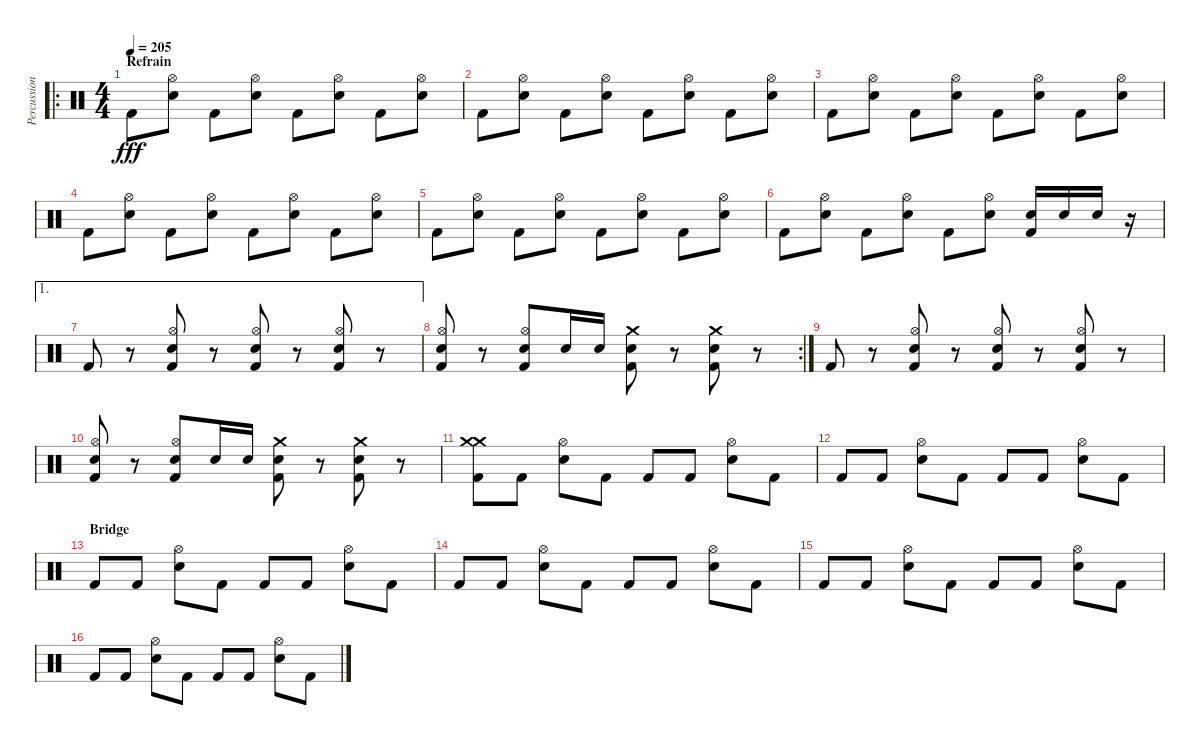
\track ("Percussions" "Percussion") {instrument percussion}
\staff {score}
\articulation defaults
\ro
\ts (4 4)
\section ("" "Refrain")
\tempo 205
\clef neutral
\ks c "Kick (hit) 2".8{dy fff}
("Hi-Hat (open)" "Snare (hit) 2").8 "Kick (hit) 2".8 ("Hi-Hat (open)" "Snare (hit) 2").8 "Kick (hit) 2".8 ("Hi-Hat (open)" "Snare (hit) 2").8 "Kick (hit) 2".8 ("Hi-Hat (open)" "Snare (hit) 2").8 |
"Kick (hit) 2".8 ("Hi-Hat (open)" "Snare (hit) 2").8 "Kick (hit) 2".8 ("Hi-Hat (open)" "Snare (hit) 2").8 "Kick (hit) 2".8 ("Hi-Hat (open)" "Snare (hit) 2").8 "Kick (hit) 2".8 ("Hi-Hat (open)" "Snare (hit) 2").8 |
"Kick (hit) 2".8 ("Hi-Hat (open)" "Snare (hit) 2").8 "Kick (hit) 2".8 ("Hi-Hat (open)" "Snare (hit) 2").8 "Kick (hit) 2".8 ("Hi-Hat (open)" "Snare (hit) 2").8 "Kick (hit) 2".8 ("Hi-Hat (open)" "Snare (hit) 2").8 |
"Kick (hit) 2".8 ("Hi-Hat (open)" "Snare (hit) 2").8 "Kick (hit) 2".8 ("Hi-Hat (open)" "Snare (hit) 2").8 "Kick (hit) 2".8 ("Hi-Hat (open)" "Snare (hit) 2").8 "Kick (hit) 2".8 ("Hi-Hat (open)" "Snare (hit) 2").8 |
"Kick (hit) 2".8 ("Hi-Hat (open)" "Snare (hit) 2").8 "Kick (hit) 2".8 ("Hi-Hat (open)" "Snare (hit) 2").8 "Kick (hit) 2".8 ("Hi-Hat (open)" "Snare (hit) 2").8 "Kick (hit) 2".8 ("Hi-Hat (open)" "Snare (hit) 2").8 |
"Kick (hit) 2".8 ("Hi-Hat (open)" "Snare (hit) 2").8 "Kick (hit) 2".8 ("Hi-Hat (open)" "Snare (hit) 2").8 "Kick (hit) 2".8 ("Hi-Hat (open)" "Snare (hit) 2").8 ("Snare (hit) 2" "Kick (hit) 2").16 "Snare (hit) 2".16 "Snare (hit) 2".16 r.16 |
\ae 1 "Kick (hit) 2".8
r.8 ("Hi-Hat (open)" "Snare (hit) 2" "Kick (hit) 2").8 r.8 ("Hi-Hat (open)" "Snare (hit) 2" "Kick (hit) 2").8 r.8 ("Hi-Hat (open)" "Snare (hit) 2" "Kick (hit) 2").8 r.8 |
\rc 2
("Hi-Hat (open)" "Snare (hit) 2" "Kick (hit) 2").8 r.8 ("Hi-Hat (open)" "Snare (hit) 2" "Kick (hit) 2").8 "Snare (hit) 2".16 "Snare (hit) 2".16 ("Crash medium (hit)" "Snare (hit) 2" "Kick (hit) 2").8 r.8 ("Crash medium (hit)" "Snare (hit) 2" "Kick (hit) 2").8 r.8 |
"Kick (hit) 2".8 r.8 ("Hi-Hat (open)" "Snare (hit) 2" "Kick (hit) 2").8 r.8 ("Hi-Hat (open)" "Snare (hit) 2" "Kick (hit) 2").8 r.8 ("Hi-Hat (open)" "Snare (hit) 2" "Kick (hit) 2").8 r.8 |
("Hi-Hat (open)" "Snare (hit) 2" "Kick (hit) 2").8 r.8 ("Hi-Hat (open)" "Snare (hit) 2" "Kick (hit) 2").8 "Snare (hit) 2".16 "Snare (hit) 2".16 ("Crash medium (hit)" "Snare (hit) 2" "Kick (hit) 2").8 r.8 ("Crash medium (hit)" "Snare (hit) 2" "Kick (hit) 2").8 r.8 |
("Crash medium (hit)" "Crash medium (hit)" "Kick (hit) 2").8 "Kick (hit) 2".8 ("Hi-Hat (open)" "Snare (hit) 2").8 "Kick (hit) 2".8 "Kick (hit) 2".8 "Kick (hit) 2".8 ("Hi-Hat (open)" "Snare (hit) 2").8 "Kick (hit) 2".8 |
"Kick (hit) 2".8 "Kick (hit) 2".8 ("Hi-Hat (open)" "Snare (hit) 2").8 "Kick (hit) 2".8 "Kick (hit) 2".8 "Kick (hit) 2".8 ("Hi-Hat (open)" "Snare (hit) 2").8 "Kick (hit) 2".8 |
\section ("" "Bridge")
"Kick (hit) 2".8 "Kick (hit) 2".8 ("Hi-Hat (open)" "Snare (hit) 2").8 "Kick (hit) 2".8 "Kick (hit) 2".8 "Kick (hit) 2".8 ("Hi-Hat (open)" "Snare (hit) 2").8 "Kick (hit) 2".8 |
"Kick (hit) 2".8 "Kick (hit) 2".8 ("Hi-Hat (open)" "Snare (hit) 2").8 "Kick (hit) 2".8 "Kick (hit) 2".8 "Kick (hit) 2".8 ("Hi-Hat (open)" "Snare (hit) 2").8 "Kick (hit) 2".8 |
"Kick (hit) 2".8 "Kick (hit) 2".8 ("Hi-Hat (open)" "Snare (hit) 2").8 "Kick (hit) 2".8 "Kick (hit) 2".8 "Kick (hit) 2".8 ("Hi-Hat (open)" "Snare (hit) 2").8 "Kick (hit) 2".8 |
"Kick (hit) 2".8 "Kick (hit) 2".8 ("Hi-Hat (open)" "Snare (hit) 2").8 "Kick (hit) 2".8 "Kick (hit) 2".8 "Kick (hit) 2".8 ("Hi-Hat (open)" "Snare (hit) 2").8 "Kick (hit) 2".8
